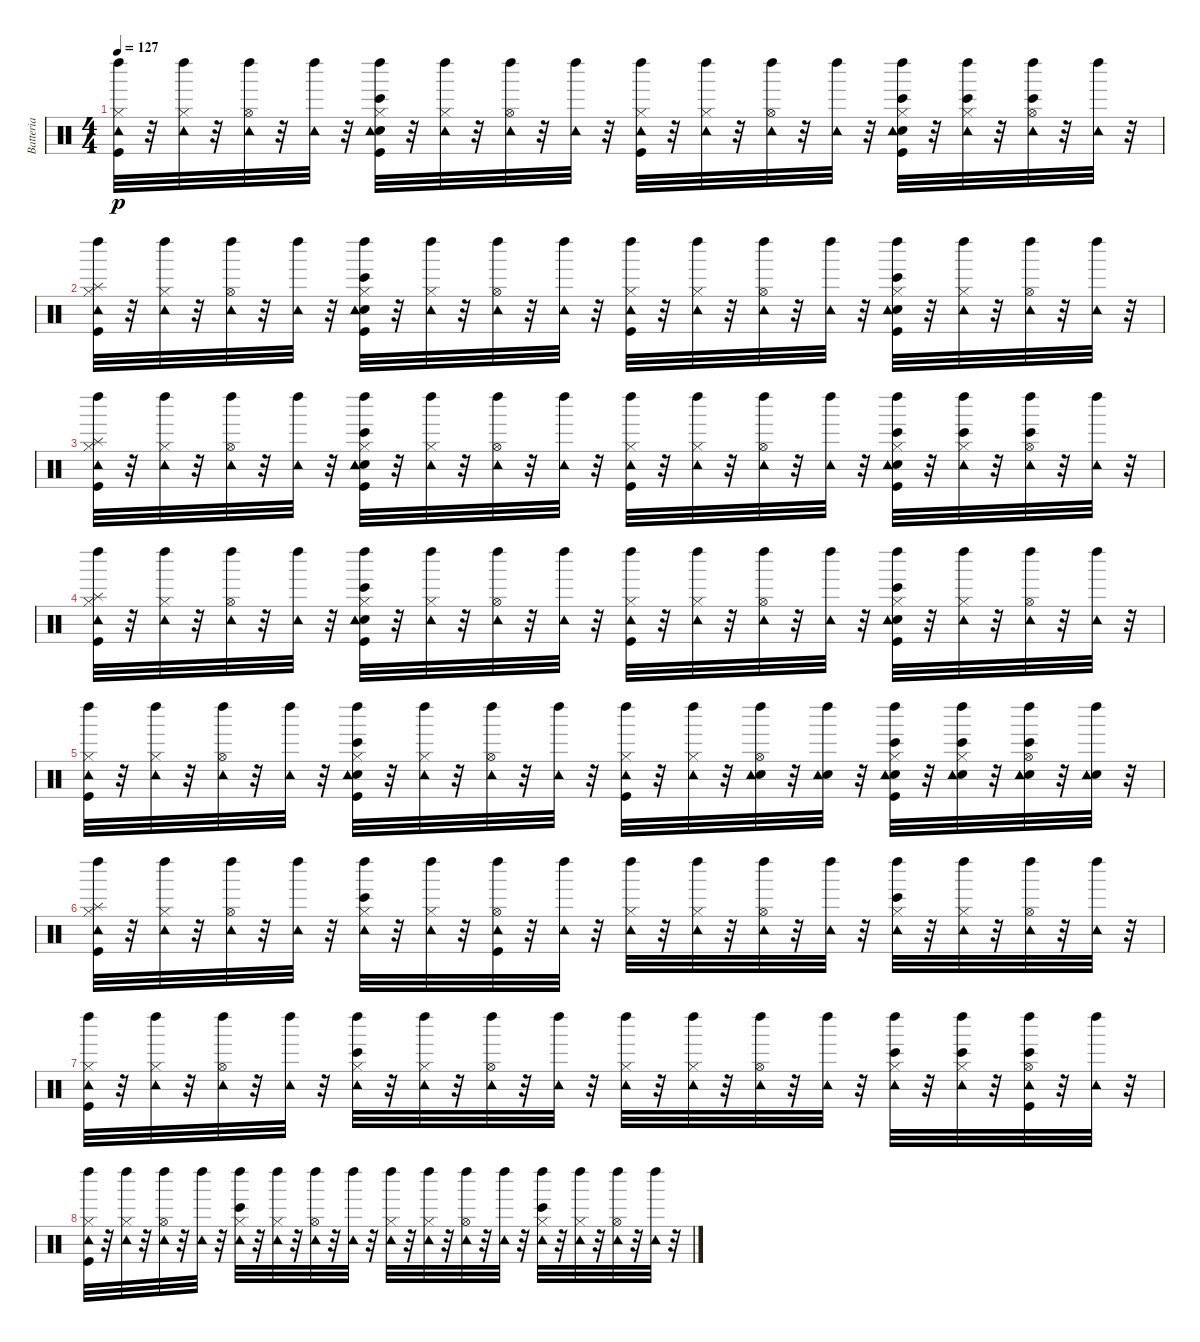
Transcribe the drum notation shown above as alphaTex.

\track ("Batteria" "Batteria") {instrument percussion}
\staff {score}
\articulation defaults
\ts (4 4)
\tempo 127
\clef neutral
\ks c
("Kick (hit)" "Hi-Hat (closed)" "Tambourine (hit)" "Left Maraca (hit)").32{dy p} r.32 ("Hi-Hat (closed)" "Tambourine (hit)" "Left Maraca (hit)").32 r.32 ("Hi-Hat (open)" "Tambourine (hit)" "Left Maraca (hit)").32 r.32 ("Tambourine (hit)" "Left Maraca (hit)").32 r.32 ("Bongo High (hit)" "Kick (hit)" "Electric Snare (hit)" "Hi-Hat (closed)" "Tambourine (hit)" "Left Maraca (hit)").32 r.32 ("Hi-Hat (closed)" "Tambourine (hit)" "Left Maraca (hit)").32 r.32 ("Hi-Hat (open)" "Tambourine (hit)" "Left Maraca (hit)").32 r.32 ("Tambourine (hit)" "Left Maraca (hit)").32 r.32 ("Kick (hit)" "Hi-Hat (closed)" "Tambourine (hit)" "Left Maraca (hit)").32 r.32 ("Hi-Hat (closed)" "Tambourine (hit)" "Left Maraca (hit)").32 r.32 ("Hi-Hat (open)" "Tambourine (hit)" "Left Maraca (hit)").32 r.32 ("Tambourine (hit)" "Left Maraca (hit)").32 r.32 ("Bongo High (hit)" "Kick (hit)" "Electric Snare (hit)" "Hi-Hat (closed)" "Tambourine (hit)" "Left Maraca (hit)").32 r.32 ("Bongo High (hit)" "Hi-Hat (closed)" "Tambourine (hit)" "Left Maraca (hit)").32 r.32 ("Bongo High (hit)" "Hi-Hat (open)" "Tambourine (hit)" "Left Maraca (hit)").32 r.32 ("Tambourine (hit)" "Left Maraca (hit)").32 r.32 |
("Kick (hit)" "Hi-Hat (closed)" "Tambourine (hit)" "Splash (hit)" "Left Maraca (hit)").32 r.32 ("Hi-Hat (closed)" "Tambourine (hit)" "Left Maraca (hit)").32 r.32 ("Hi-Hat (open)" "Tambourine (hit)" "Left Maraca (hit)").32 r.32 ("Tambourine (hit)" "Left Maraca (hit)").32 r.32 ("Bongo High (hit)" "Kick (hit)" "Electric Snare (hit)" "Hi-Hat (closed)" "Tambourine (hit)" "Left Maraca (hit)").32 r.32 ("Hi-Hat (closed)" "Tambourine (hit)" "Left Maraca (hit)").32 r.32 ("Hi-Hat (open)" "Tambourine (hit)" "Left Maraca (hit)").32 r.32 ("Tambourine (hit)" "Left Maraca (hit)").32 r.32 ("Kick (hit)" "Hi-Hat (closed)" "Tambourine (hit)" "Left Maraca (hit)").32 r.32 ("Hi-Hat (closed)" "Tambourine (hit)" "Left Maraca (hit)").32 r.32 ("Hi-Hat (open)" "Tambourine (hit)" "Left Maraca (hit)").32 r.32 ("Tambourine (hit)" "Left Maraca (hit)").32 r.32 ("Bongo High (hit)" "Kick (hit)" "Electric Snare (hit)" "Hi-Hat (closed)" "Tambourine (hit)" "Left Maraca (hit)").32 r.32 ("Hi-Hat (closed)" "Tambourine (hit)" "Left Maraca (hit)").32 r.32 ("Hi-Hat (open)" "Tambourine (hit)" "Left Maraca (hit)").32 r.32 ("Tambourine (hit)" "Left Maraca (hit)").32 r.32 |
("Kick (hit)" "Hi-Hat (closed)" "Tambourine (hit)" "Splash (hit)" "Left Maraca (hit)").32 r.32 ("Hi-Hat (closed)" "Tambourine (hit)" "Left Maraca (hit)").32 r.32 ("Hi-Hat (open)" "Tambourine (hit)" "Left Maraca (hit)").32 r.32 ("Tambourine (hit)" "Left Maraca (hit)").32 r.32 ("Bongo High (hit)" "Kick (hit)" "Electric Snare (hit)" "Hi-Hat (closed)" "Tambourine (hit)" "Left Maraca (hit)").32 r.32 ("Hi-Hat (closed)" "Tambourine (hit)" "Left Maraca (hit)").32 r.32 ("Hi-Hat (open)" "Tambourine (hit)" "Left Maraca (hit)").32 r.32 ("Tambourine (hit)" "Left Maraca (hit)").32 r.32 ("Kick (hit)" "Hi-Hat (closed)" "Tambourine (hit)" "Left Maraca (hit)").32 r.32 ("Hi-Hat (closed)" "Tambourine (hit)" "Left Maraca (hit)").32 r.32 ("Hi-Hat (open)" "Tambourine (hit)" "Left Maraca (hit)").32 r.32 ("Tambourine (hit)" "Left Maraca (hit)").32 r.32 ("Bongo High (hit)" "Kick (hit)" "Electric Snare (hit)" "Hi-Hat (closed)" "Tambourine (hit)" "Left Maraca (hit)").32 r.32 ("Bongo High (hit)" "Hi-Hat (closed)" "Tambourine (hit)" "Left Maraca (hit)").32 r.32 ("Bongo High (hit)" "Hi-Hat (open)" "Tambourine (hit)" "Left Maraca (hit)").32 r.32 ("Tambourine (hit)" "Left Maraca (hit)").32 r.32 |
("Kick (hit)" "Hi-Hat (closed)" "Tambourine (hit)" "Splash (hit)" "Left Maraca (hit)").32 r.32 ("Hi-Hat (closed)" "Tambourine (hit)" "Left Maraca (hit)").32 r.32 ("Hi-Hat (open)" "Tambourine (hit)" "Left Maraca (hit)").32 r.32 ("Tambourine (hit)" "Left Maraca (hit)").32 r.32 ("Bongo High (hit)" "Kick (hit)" "Electric Snare (hit)" "Hi-Hat (closed)" "Tambourine (hit)" "Left Maraca (hit)").32 r.32 ("Hi-Hat (closed)" "Tambourine (hit)" "Left Maraca (hit)").32 r.32 ("Hi-Hat (open)" "Tambourine (hit)" "Left Maraca (hit)").32 r.32 ("Tambourine (hit)" "Left Maraca (hit)").32 r.32 ("Kick (hit)" "Hi-Hat (closed)" "Tambourine (hit)" "Left Maraca (hit)").32 r.32 ("Hi-Hat (closed)" "Tambourine (hit)" "Left Maraca (hit)").32 r.32 ("Hi-Hat (open)" "Tambourine (hit)" "Left Maraca (hit)").32 r.32 ("Tambourine (hit)" "Left Maraca (hit)").32 r.32 ("Bongo High (hit)" "Kick (hit)" "Electric Snare (hit)" "Hi-Hat (closed)" "Tambourine (hit)" "Left Maraca (hit)").32 r.32 ("Hi-Hat (closed)" "Tambourine (hit)" "Left Maraca (hit)").32 r.32 ("Hi-Hat (open)" "Tambourine (hit)" "Left Maraca (hit)").32 r.32 ("Tambourine (hit)" "Left Maraca (hit)").32 r.32 |
("Kick (hit)" "Hi-Hat (closed)" "Tambourine (hit)" "Left Maraca (hit)").32 r.32 ("Hi-Hat (closed)" "Tambourine (hit)" "Left Maraca (hit)").32 r.32 ("Hi-Hat (open)" "Tambourine (hit)" "Left Maraca (hit)").32 r.32 ("Tambourine (hit)" "Left Maraca (hit)").32 r.32 ("Bongo High (hit)" "Kick (hit)" "Electric Snare (hit)" "Hi-Hat (closed)" "Tambourine (hit)" "Left Maraca (hit)").32 r.32 ("Hi-Hat (closed)" "Tambourine (hit)" "Left Maraca (hit)").32 r.32 ("Hi-Hat (open)" "Tambourine (hit)" "Left Maraca (hit)").32 r.32 ("Tambourine (hit)" "Left Maraca (hit)").32 r.32 ("Kick (hit)" "Hi-Hat (closed)" "Tambourine (hit)" "Left Maraca (hit)").32 r.32 ("Hi-Hat (closed)" "Tambourine (hit)" "Left Maraca (hit)").32 r.32 ("Electric Snare (hit)" "Hi-Hat (open)" "Tambourine (hit)" "Left Maraca (hit)").32 r.32 ("Electric Snare (hit)" "Tambourine (hit)" "Left Maraca (hit)").32 r.32 ("Bongo High (hit)" "Kick (hit)" "Electric Snare (hit)" "Hi-Hat (closed)" "Tambourine (hit)" "Left Maraca (hit)").32 r.32 ("Bongo High (hit)" "Electric Snare (hit)" "Hi-Hat (closed)" "Tambourine (hit)" "Left Maraca (hit)").32 r.32 ("Bongo High (hit)" "Electric Snare (hit)" "Hi-Hat (open)" "Tambourine (hit)" "Left Maraca (hit)").32 r.32 ("Electric Snare (hit)" "Tambourine (hit)" "Left Maraca (hit)").32 r.32 |
("Kick (hit)" "Hi-Hat (closed)" "Tambourine (hit)" "Splash (hit)" "Left Maraca (hit)").32 r.32 ("Hi-Hat (closed)" "Tambourine (hit)" "Left Maraca (hit)").32 r.32 ("Hi-Hat (open)" "Tambourine (hit)" "Left Maraca (hit)").32 r.32 ("Tambourine (hit)" "Left Maraca (hit)").32 r.32 ("Bongo High (hit)" "Hi-Hat (closed)" "Tambourine (hit)" "Left Maraca (hit)").32 r.32 ("Hi-Hat (closed)" "Tambourine (hit)" "Left Maraca (hit)").32 r.32 ("Kick (hit)" "Hi-Hat (open)" "Tambourine (hit)" "Left Maraca (hit)").32 r.32 ("Tambourine (hit)" "Left Maraca (hit)").32 r.32 ("Hi-Hat (closed)" "Tambourine (hit)" "Left Maraca (hit)").32 r.32 ("Hi-Hat (closed)" "Tambourine (hit)" "Left Maraca (hit)").32 r.32 ("Hi-Hat (open)" "Tambourine (hit)" "Left Maraca (hit)").32 r.32 ("Tambourine (hit)" "Left Maraca (hit)").32 r.32 ("Bongo High (hit)" "Hi-Hat (closed)" "Tambourine (hit)" "Left Maraca (hit)").32 r.32 ("Hi-Hat (closed)" "Tambourine (hit)" "Left Maraca (hit)").32 r.32 ("Hi-Hat (open)" "Tambourine (hit)" "Left Maraca (hit)").32 r.32 ("Tambourine (hit)" "Left Maraca (hit)").32 r.32 |
("Kick (hit)" "Hi-Hat (closed)" "Tambourine (hit)" "Left Maraca (hit)").32 r.32 ("Hi-Hat (closed)" "Tambourine (hit)" "Left Maraca (hit)").32 r.32 ("Hi-Hat (open)" "Tambourine (hit)" "Left Maraca (hit)").32 r.32 ("Tambourine (hit)" "Left Maraca (hit)").32 r.32 ("Bongo High (hit)" "Hi-Hat (closed)" "Tambourine (hit)" "Left Maraca (hit)").32 r.32 ("Hi-Hat (closed)" "Tambourine (hit)" "Left Maraca (hit)").32 r.32 ("Hi-Hat (open)" "Tambourine (hit)" "Left Maraca (hit)").32 r.32 ("Tambourine (hit)" "Left Maraca (hit)").32 r.32 ("Hi-Hat (closed)" "Tambourine (hit)" "Left Maraca (hit)").32 r.32 ("Hi-Hat (closed)" "Tambourine (hit)" "Left Maraca (hit)").32 r.32 ("Hi-Hat (open)" "Tambourine (hit)" "Left Maraca (hit)").32 r.32 ("Tambourine (hit)" "Left Maraca (hit)").32 r.32 ("Bongo High (hit)" "Hi-Hat (closed)" "Tambourine (hit)" "Left Maraca (hit)").32 r.32 ("Bongo High (hit)" "Hi-Hat (closed)" "Tambourine (hit)" "Left Maraca (hit)").32 r.32 ("Bongo High (hit)" "Kick (hit)" "Hi-Hat (open)" "Tambourine (hit)" "Left Maraca (hit)").32 r.32 ("Tambourine (hit)" "Left Maraca (hit)").32 r.32 |
("Kick (hit)" "Hi-Hat (closed)" "Tambourine (hit)" "Left Maraca (hit)").32 r.32 ("Hi-Hat (closed)" "Tambourine (hit)" "Left Maraca (hit)").32 r.32 ("Hi-Hat (open)" "Tambourine (hit)" "Left Maraca (hit)").32 r.32 ("Tambourine (hit)" "Left Maraca (hit)").32 r.32 ("Bongo High (hit)" "Hi-Hat (closed)" "Tambourine (hit)" "Left Maraca (hit)").32 r.32 ("Hi-Hat (closed)" "Tambourine (hit)" "Left Maraca (hit)").32 r.32 ("Hi-Hat (open)" "Tambourine (hit)" "Left Maraca (hit)").32 r.32 ("Tambourine (hit)" "Left Maraca (hit)").32 r.32 ("Hi-Hat (closed)" "Tambourine (hit)" "Left Maraca (hit)").32 r.32 ("Hi-Hat (closed)" "Tambourine (hit)" "Left Maraca (hit)").32 r.32 ("Hi-Hat (open)" "Tambourine (hit)" "Left Maraca (hit)").32 r.32 ("Tambourine (hit)" "Left Maraca (hit)").32 r.32 ("Bongo High (hit)" "Hi-Hat (closed)" "Tambourine (hit)" "Left Maraca (hit)").32 r.32 ("Hi-Hat (closed)" "Tambourine (hit)" "Left Maraca (hit)").32 r.32 ("Hi-Hat (open)" "Tambourine (hit)" "Left Maraca (hit)").32 r.32 ("Tambourine (hit)" "Left Maraca (hit)").32 r.32
